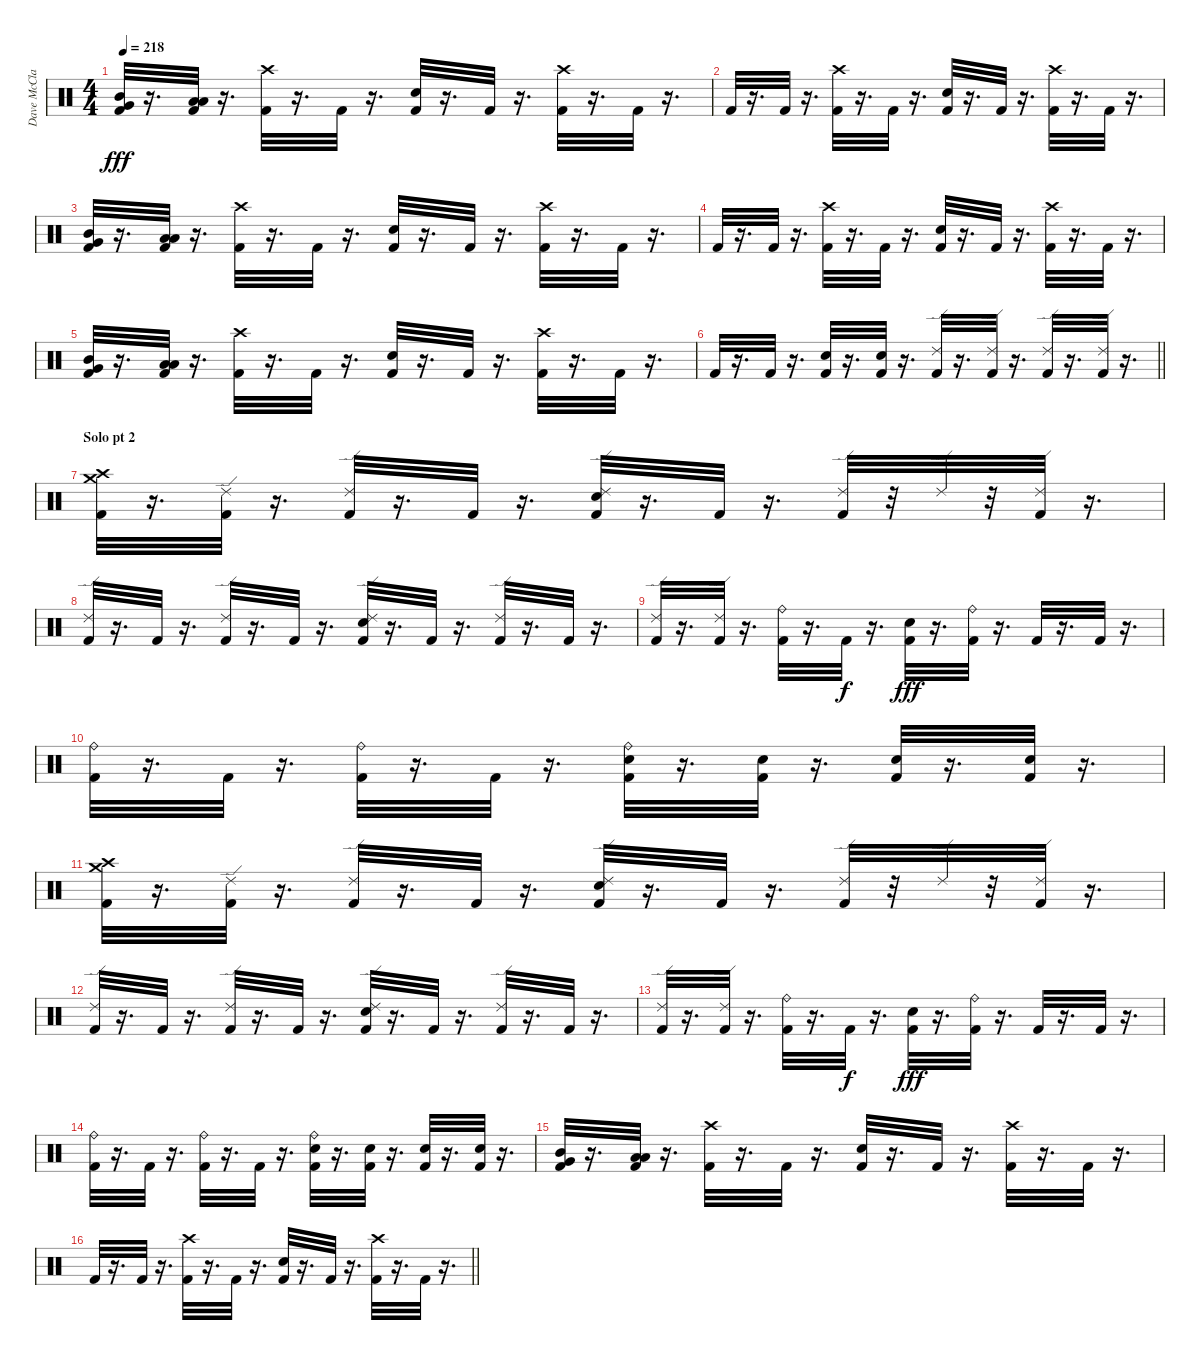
\track ("Dave McClain" "Dave McCla") {instrument percussion}
\staff {score}
\articulation defaults
\ts (4 4)
\tempo 218
\clef neutral
\ks c
("Very Low Tom (hit)" "Mid Tom (hit)" "Kick (hit) 2").32{dy fff} r.16{d} ("Low Tom (hit)" "Low Floor Tom (hit)" "Kick (hit) 2").32 r.16{d} ("Kick (hit) 2" "Crash high (hit)").32 r.16{d} "Kick (hit) 2".32 r.16{d} ("Kick (hit) 2" "Snare (hit) 2").32 r.16{d} "Kick (hit) 2".32 r.16{d} ("Kick (hit) 2" "Crash high (hit)").32 r.16{d} "Kick (hit) 2".32 r.16{d} |
"Kick (hit) 2".32 r.16{d} "Kick (hit) 2".32 r.16{d} ("Kick (hit) 2" "Crash high (hit)").32 r.16{d} "Kick (hit) 2".32 r.16{d} ("Kick (hit) 2" "Snare (hit) 2").32 r.16{d} "Kick (hit) 2".32 r.16{d} ("Kick (hit) 2" "Crash high (hit)").32 r.16{d} "Kick (hit) 2".32 r.16{d} |
("Very Low Tom (hit)" "Mid Tom (hit)" "Kick (hit) 2").32 r.16{d} ("Kick (hit) 2" "Low Tom (hit)" "Low Floor Tom (hit)").32 r.16{d} ("Kick (hit) 2" "Crash high (hit)").32 r.16{d} "Kick (hit) 2".32 r.16{d} ("Kick (hit) 2" "Snare (hit) 2").32 r.16{d} "Kick (hit) 2".32 r.16{d} ("Kick (hit) 2" "Crash high (hit)").32 r.16{d} "Kick (hit) 2".32 r.16{d} |
"Kick (hit) 2".32 r.16{d} "Kick (hit) 2".32 r.16{d} ("Kick (hit) 2" "Crash high (hit)").32 r.16{d} "Kick (hit) 2".32 r.16{d} ("Kick (hit) 2" "Snare (hit) 2").32 r.16{d} "Kick (hit) 2".32 r.16{d} ("Kick (hit) 2" "Crash high (hit)").32 r.16{d} "Kick (hit) 2".32 r.16{d} |
("Very Low Tom (hit)" "Mid Tom (hit)" "Kick (hit) 2").32 r.16{d} ("Low Tom (hit)" "Low Floor Tom (hit)" "Kick (hit) 2").32 r.16{d} ("Kick (hit) 2" "Crash high (hit)").32 r.16{d} "Kick (hit) 2".32 r.16{d} ("Kick (hit) 2" "Snare (hit) 2").32 r.16{d} "Kick (hit) 2".32 r.16{d} ("Kick (hit) 2" "Crash high (hit)").32 r.16{d} "Kick (hit) 2".32 r.16{d} |
\barLineRight lightlight "Kick (hit) 2".32
r.16{d} "Kick (hit) 2".32 r.16{d} ("Snare (hit) 2" "Kick (hit) 2").32 r.16{d} ("Snare (hit) 2" "Kick (hit) 2").32 r.16{d} ("Ride (edge) 2" "Kick (hit) 2").32 r.16{d} ("Ride (edge) 2" "Kick (hit) 2").32 r.16{d} ("Ride (edge) 2" "Kick (hit) 2").32 r.16{d} ("Ride (edge) 2" "Kick (hit) 2").32 r.16{d} |
\section ("" "Solo pt 2")
("Crash medium (hit)" "Crash high (hit)" "Kick (hit) 2").32 r.16{d} ("Ride (edge) 2" "Kick (hit) 2").32 r.16{d} ("Ride (edge) 2" "Kick (hit) 2").32 r.16{d} "Kick (hit) 2".32 r.16{d} ("Ride (edge) 2" "Snare (hit) 2" "Kick (hit) 2").32 r.16{d} "Kick (hit) 2".32 r.16{d} ("Ride (edge) 2" "Kick (hit) 2").32 r.32 "Ride (edge) 2".32 r.32 ("Ride (edge) 2" "Kick (hit) 2").32 r.16{d} |
("Ride (edge) 2" "Kick (hit) 2").32 r.16{d} "Kick (hit) 2".32 r.16{d} ("Ride (edge) 2" "Kick (hit) 2").32 r.16{d} "Kick (hit) 2".32 r.16{d} ("Ride (edge) 2" "Snare (hit) 2" "Kick (hit) 2").32 r.16{d} "Kick (hit) 2".32 r.16{d} ("Ride (edge) 2" "Kick (hit) 2").32 r.16{d} "Kick (hit) 2".32 r.16{d} |
("Ride (edge) 2" "Kick (hit) 2").32 r.16{d} ("Ride (edge) 2" "Kick (hit) 2").32 r.16{d} ("Ride (bell)" "Kick (hit) 2").32 r.16{d} "Kick (hit) 2".32{dy f} r.16{d} ("Snare (hit) 2" "Kick (hit) 2").32{dy fff} r.16{d} ("Ride (bell)" "Kick (hit) 2").32 r.16{d} "Kick (hit) 2".32 r.16{d} "Kick (hit) 2".32 r.16{d} |
("Ride (bell)" "Kick (hit) 2").32 r.16{d} "Kick (hit) 2".32 r.16{d} ("Ride (bell)" "Kick (hit) 2").32 r.16{d} "Kick (hit) 2".32 r.16{d} ("Ride (bell)" "Snare (hit) 2" "Kick (hit) 2").32 r.16{d} ("Snare (hit) 2" "Kick (hit) 2").32 r.16{d} ("Snare (hit) 2" "Kick (hit) 2").32 r.16{d} ("Snare (hit) 2" "Kick (hit) 2").32 r.16{d} |
("Crash medium (hit)" "Crash high (hit)" "Kick (hit) 2").32 r.16{d} ("Ride (edge) 2" "Kick (hit) 2").32 r.16{d} ("Ride (edge) 2" "Kick (hit) 2").32 r.16{d} "Kick (hit) 2".32 r.16{d} ("Ride (edge) 2" "Snare (hit) 2" "Kick (hit) 2").32 r.16{d} "Kick (hit) 2".32 r.16{d} ("Ride (edge) 2" "Kick (hit) 2").32 r.32 "Ride (edge) 2".32 r.32 ("Ride (edge) 2" "Kick (hit) 2").32 r.16{d} |
("Ride (edge) 2" "Kick (hit) 2").32 r.16{d} "Kick (hit) 2".32 r.16{d} ("Ride (edge) 2" "Kick (hit) 2").32 r.16{d} "Kick (hit) 2".32 r.16{d} ("Ride (edge) 2" "Snare (hit) 2" "Kick (hit) 2").32 r.16{d} "Kick (hit) 2".32 r.16{d} ("Ride (edge) 2" "Kick (hit) 2").32 r.16{d} "Kick (hit) 2".32 r.16{d} |
("Ride (edge) 2" "Kick (hit) 2").32 r.16{d} ("Ride (edge) 2" "Kick (hit) 2").32 r.16{d} ("Ride (bell)" "Kick (hit) 2").32 r.16{d} "Kick (hit) 2".32{dy f} r.16{d} ("Snare (hit) 2" "Kick (hit) 2").32{dy fff} r.16{d} ("Ride (bell)" "Kick (hit) 2").32 r.16{d} "Kick (hit) 2".32 r.16{d} "Kick (hit) 2".32 r.16{d} |
("Ride (bell)" "Kick (hit) 2").32 r.16{d} "Kick (hit) 2".32 r.16{d} ("Ride (bell)" "Kick (hit) 2").32 r.16{d} "Kick (hit) 2".32 r.16{d} ("Ride (bell)" "Snare (hit) 2" "Kick (hit) 2").32 r.16{d} ("Snare (hit) 2" "Kick (hit) 2").32 r.16{d} ("Snare (hit) 2" "Kick (hit) 2").32 r.16{d} ("Snare (hit) 2" "Kick (hit) 2").32 r.16{d} |
("Very Low Tom (hit)" "Mid Tom (hit)" "Kick (hit) 2").32 r.16{d} ("Kick (hit) 2" "Low Tom (hit)" "Low Floor Tom (hit)").32 r.16{d} ("Kick (hit) 2" "Crash high (hit)").32 r.16{d} "Kick (hit) 2".32 r.16{d} ("Kick (hit) 2" "Snare (hit) 2").32 r.16{d} "Kick (hit) 2".32 r.16{d} ("Kick (hit) 2" "Crash high (hit)").32 r.16{d} "Kick (hit) 2".32 r.16{d} |
\barLineRight lightlight "Kick (hit) 2".32
r.16{d} "Kick (hit) 2".32 r.16{d} ("Kick (hit) 2" "Crash high (hit)").32 r.16{d} "Kick (hit) 2".32 r.16{d} ("Kick (hit) 2" "Snare (hit) 2").32 r.16{d} "Kick (hit) 2".32 r.16{d} ("Kick (hit) 2" "Crash high (hit)").32 r.16{d} "Kick (hit) 2".32 r.16{d}
